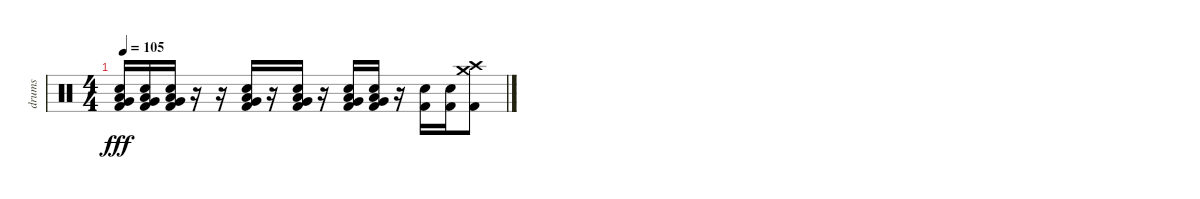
\track ("drums" "drums") {instrument percussion}
\staff {score}
\articulation defaults
\ts (4 4)
\section ("" "")
\tempo 105
\clef neutral
\ks c
("Electric Snare (hit)" "Very Low Tom (hit)" "Low Floor Tom (hit)" "Kick (hit) 2").16{dy fff} ("Electric Snare (hit)" "Very Low Tom (hit)" "Low Floor Tom (hit)" "Kick (hit) 2").16 ("Electric Snare (hit)" "Very Low Tom (hit)" "Low Floor Tom (hit)" "Kick (hit) 2").16 r.16 r.16 ("Electric Snare (hit)" "Very Low Tom (hit)" "Low Floor Tom (hit)" "Kick (hit) 2").16 r.16 ("Electric Snare (hit)" "Very Low Tom (hit)" "Low Floor Tom (hit)" "Kick (hit) 2").16 r.16 ("Electric Snare (hit)" "Very Low Tom (hit)" "Low Floor Tom (hit)" "Kick (hit) 2").16 ("Electric Snare (hit)" "Very Low Tom (hit)" "Low Floor Tom (hit)" "Kick (hit) 2").16 r.16 ("Electric Snare (hit)" "Kick (hit) 2").16 ("Electric Snare (hit)" "Kick (hit) 2").16 ("Crash high (hit)" "Crash medium (hit)" "Kick (hit) 2").8
